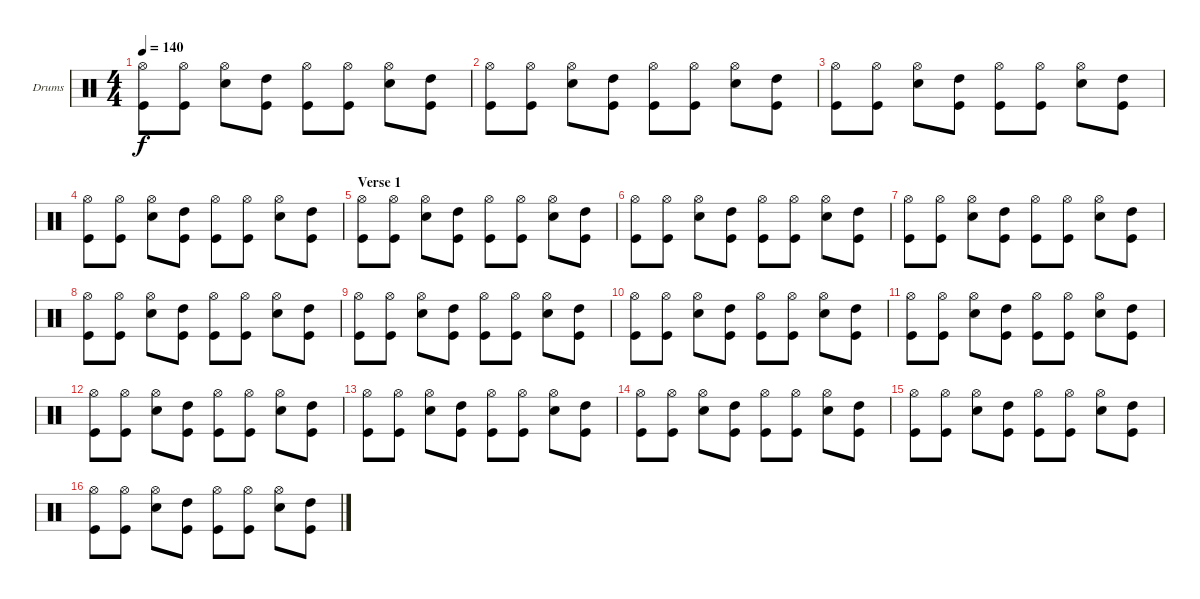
\bracketExtendMode groupsimilarinstruments
\firstSystemTrackNameOrientation horizontal
\otherSystemsTrackNameOrientation horizontal
\track ("Drumkit" "Drums") {instrument percussion}
\staff {score}
\articulation defaults
\ts (4 4)
\tempo 140
\clef neutral
\ks c
("Hi-Hat (open)" "Kick (hit)").8{dy f} ("Hi-Hat (open)" "Kick (hit)").8 ("Hi-Hat (open)" "Snare (hit) 2").8 ("High Tom (hit)" "Kick (hit)").8 ("Hi-Hat (open)" "Kick (hit)").8 ("Hi-Hat (open)" "Kick (hit)").8 ("Hi-Hat (open)" "Snare (hit) 2").8 ("High Tom (hit)" "Kick (hit)").8 |
("Hi-Hat (open)" "Kick (hit)").8 ("Hi-Hat (open)" "Kick (hit)").8 ("Hi-Hat (open)" "Snare (hit) 2").8 ("High Tom (hit)" "Kick (hit)").8 ("Hi-Hat (open)" "Kick (hit)").8 ("Hi-Hat (open)" "Kick (hit)").8 ("Hi-Hat (open)" "Snare (hit) 2").8 ("High Tom (hit)" "Kick (hit)").8 |
("Hi-Hat (open)" "Kick (hit)").8 ("Hi-Hat (open)" "Kick (hit)").8 ("Hi-Hat (open)" "Snare (hit) 2").8 ("High Tom (hit)" "Kick (hit)").8 ("Hi-Hat (open)" "Kick (hit)").8 ("Hi-Hat (open)" "Kick (hit)").8 ("Hi-Hat (open)" "Snare (hit) 2").8 ("High Tom (hit)" "Kick (hit)").8 |
("Hi-Hat (open)" "Kick (hit)").8 ("Hi-Hat (open)" "Kick (hit)").8 ("Hi-Hat (open)" "Snare (hit) 2").8 ("High Tom (hit)" "Kick (hit)").8 ("Hi-Hat (open)" "Kick (hit)").8 ("Hi-Hat (open)" "Kick (hit)").8 ("Hi-Hat (open)" "Snare (hit) 2").8 ("High Tom (hit)" "Kick (hit)").8 |
\section ("" "Verse 1")
("Hi-Hat (open)" "Kick (hit)").8 ("Hi-Hat (open)" "Kick (hit)").8 ("Hi-Hat (open)" "Snare (hit) 2").8 ("High Tom (hit)" "Kick (hit)").8 ("Hi-Hat (open)" "Kick (hit)").8 ("Hi-Hat (open)" "Kick (hit)").8 ("Hi-Hat (open)" "Snare (hit) 2").8 ("High Tom (hit)" "Kick (hit)").8 |
("Hi-Hat (open)" "Kick (hit)").8 ("Hi-Hat (open)" "Kick (hit)").8 ("Hi-Hat (open)" "Snare (hit) 2").8 ("High Tom (hit)" "Kick (hit)").8 ("Hi-Hat (open)" "Kick (hit)").8 ("Hi-Hat (open)" "Kick (hit)").8 ("Hi-Hat (open)" "Snare (hit) 2").8 ("High Tom (hit)" "Kick (hit)").8 |
("Hi-Hat (open)" "Kick (hit)").8 ("Hi-Hat (open)" "Kick (hit)").8 ("Hi-Hat (open)" "Snare (hit) 2").8 ("High Tom (hit)" "Kick (hit)").8 ("Hi-Hat (open)" "Kick (hit)").8 ("Hi-Hat (open)" "Kick (hit)").8 ("Hi-Hat (open)" "Snare (hit) 2").8 ("High Tom (hit)" "Kick (hit)").8 |
("Hi-Hat (open)" "Kick (hit)").8 ("Hi-Hat (open)" "Kick (hit)").8 ("Hi-Hat (open)" "Snare (hit) 2").8 ("High Tom (hit)" "Kick (hit)").8 ("Hi-Hat (open)" "Kick (hit)").8 ("Hi-Hat (open)" "Kick (hit)").8 ("Hi-Hat (open)" "Snare (hit) 2").8 ("High Tom (hit)" "Kick (hit)").8 |
("Hi-Hat (open)" "Kick (hit)").8 ("Hi-Hat (open)" "Kick (hit)").8 ("Hi-Hat (open)" "Snare (hit) 2").8 ("High Tom (hit)" "Kick (hit)").8 ("Hi-Hat (open)" "Kick (hit)").8 ("Hi-Hat (open)" "Kick (hit)").8 ("Hi-Hat (open)" "Snare (hit) 2").8 ("High Tom (hit)" "Kick (hit)").8 |
("Hi-Hat (open)" "Kick (hit)").8 ("Hi-Hat (open)" "Kick (hit)").8 ("Hi-Hat (open)" "Snare (hit) 2").8 ("High Tom (hit)" "Kick (hit)").8 ("Hi-Hat (open)" "Kick (hit)").8 ("Hi-Hat (open)" "Kick (hit)").8 ("Hi-Hat (open)" "Snare (hit) 2").8 ("High Tom (hit)" "Kick (hit)").8 |
("Hi-Hat (open)" "Kick (hit)").8 ("Hi-Hat (open)" "Kick (hit)").8 ("Hi-Hat (open)" "Snare (hit) 2").8 ("High Tom (hit)" "Kick (hit)").8 ("Hi-Hat (open)" "Kick (hit)").8 ("Hi-Hat (open)" "Kick (hit)").8 ("Hi-Hat (open)" "Snare (hit) 2").8 ("High Tom (hit)" "Kick (hit)").8 |
("Hi-Hat (open)" "Kick (hit)").8 ("Hi-Hat (open)" "Kick (hit)").8 ("Hi-Hat (open)" "Snare (hit) 2").8 ("High Tom (hit)" "Kick (hit)").8 ("Hi-Hat (open)" "Kick (hit)").8 ("Hi-Hat (open)" "Kick (hit)").8 ("Hi-Hat (open)" "Snare (hit) 2").8 ("High Tom (hit)" "Kick (hit)").8 |
("Hi-Hat (open)" "Kick (hit)").8 ("Hi-Hat (open)" "Kick (hit)").8 ("Hi-Hat (open)" "Snare (hit) 2").8 ("High Tom (hit)" "Kick (hit)").8 ("Hi-Hat (open)" "Kick (hit)").8 ("Hi-Hat (open)" "Kick (hit)").8 ("Hi-Hat (open)" "Snare (hit) 2").8 ("High Tom (hit)" "Kick (hit)").8 |
("Hi-Hat (open)" "Kick (hit)").8 ("Hi-Hat (open)" "Kick (hit)").8 ("Hi-Hat (open)" "Snare (hit) 2").8 ("High Tom (hit)" "Kick (hit)").8 ("Hi-Hat (open)" "Kick (hit)").8 ("Hi-Hat (open)" "Kick (hit)").8 ("Hi-Hat (open)" "Snare (hit) 2").8 ("High Tom (hit)" "Kick (hit)").8 |
("Hi-Hat (open)" "Kick (hit)").8 ("Hi-Hat (open)" "Kick (hit)").8 ("Hi-Hat (open)" "Snare (hit) 2").8 ("High Tom (hit)" "Kick (hit)").8 ("Hi-Hat (open)" "Kick (hit)").8 ("Hi-Hat (open)" "Kick (hit)").8 ("Hi-Hat (open)" "Snare (hit) 2").8 ("High Tom (hit)" "Kick (hit)").8 |
("Hi-Hat (open)" "Kick (hit)").8 ("Hi-Hat (open)" "Kick (hit)").8 ("Hi-Hat (open)" "Snare (hit) 2").8 ("High Tom (hit)" "Kick (hit)").8 ("Hi-Hat (open)" "Kick (hit)").8 ("Hi-Hat (open)" "Kick (hit)").8 ("Hi-Hat (open)" "Snare (hit) 2").8 ("High Tom (hit)" "Kick (hit)").8
